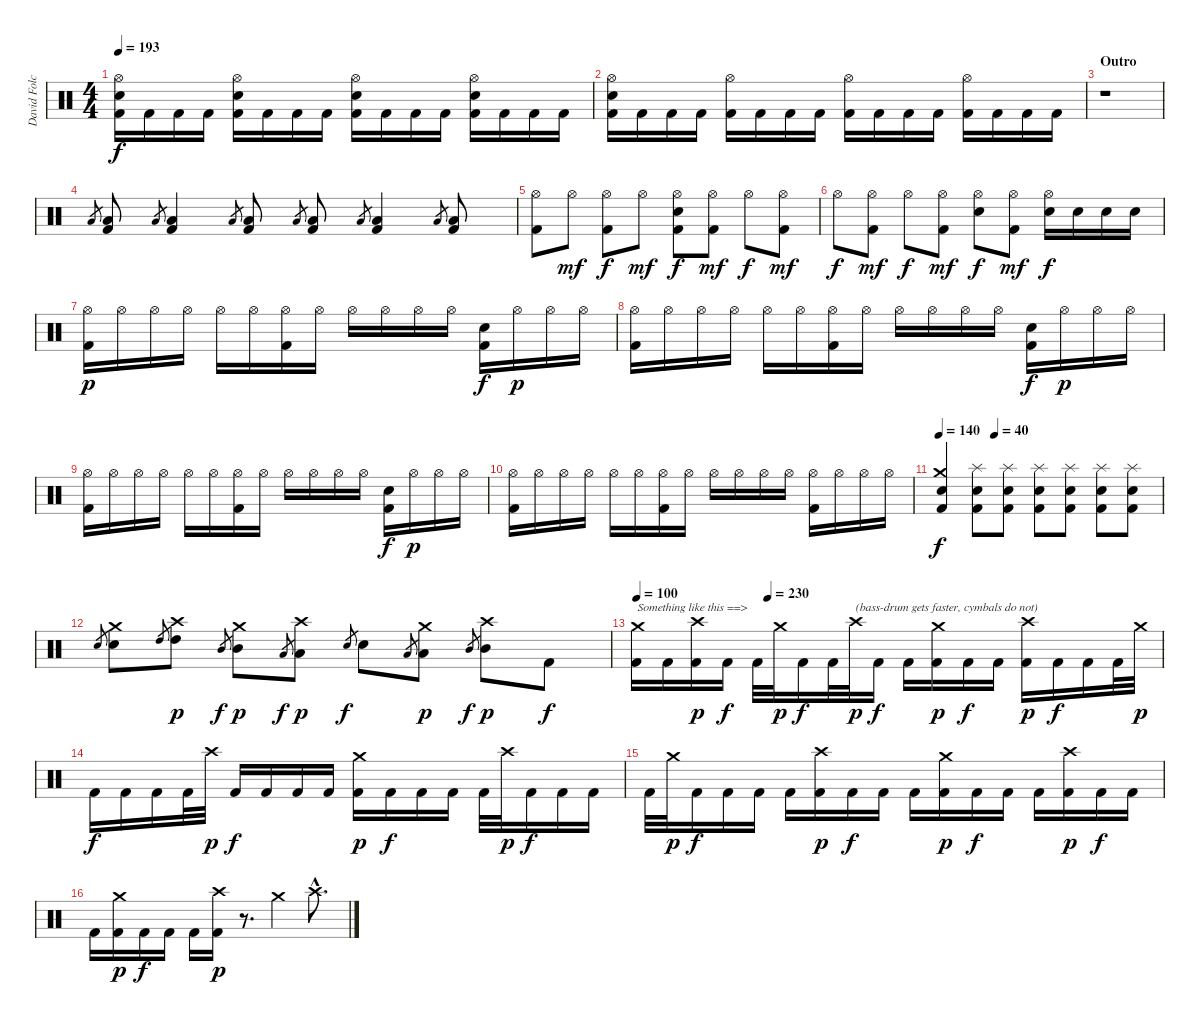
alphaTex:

\track ("David Folchitto" "David Folc") {instrument percussion}
\staff {score}
\articulation defaults
\ts (4 4)
\tempo 193
\clef neutral
\ks c
("Hi-Hat (open)" "Snare (hit) 2" "Kick (hit) 2").16{dy f} "Kick (hit) 2".16 "Kick (hit) 2".16 "Kick (hit) 2".16 ("Hi-Hat (open)" "Snare (hit) 2" "Kick (hit) 2").16 "Kick (hit) 2".16 "Kick (hit) 2".16 "Kick (hit) 2".16 ("Hi-Hat (open)" "Snare (hit) 2" "Kick (hit) 2").16 "Kick (hit) 2".16 "Kick (hit) 2".16 "Kick (hit) 2".16 ("Hi-Hat (open)" "Snare (hit) 2" "Kick (hit) 2").16 "Kick (hit) 2".16 "Kick (hit) 2".16 "Kick (hit) 2".16 |
("Hi-Hat (open)" "Snare (hit) 2" "Kick (hit) 2").16 "Kick (hit) 2".16 "Kick (hit) 2".16 "Kick (hit) 2".16 ("Hi-Hat (open)" "Kick (hit) 2").16 "Kick (hit) 2".16 "Kick (hit) 2".16 "Kick (hit) 2".16 ("Hi-Hat (open)" "Kick (hit) 2").16 "Kick (hit) 2".16 "Kick (hit) 2".16 "Kick (hit) 2".16 ("Hi-Hat (open)" "Kick (hit) 2").16 "Kick (hit) 2".16 "Kick (hit) 2".16 "Kick (hit) 2".16 |
\section ("" "Outro")
r.1 |
"Low Tom (hit)".8{gr} ("Low Tom (hit)" "Kick (hit) 2").8 "Low Tom (hit)".8{gr} ("Low Tom (hit)" "Kick (hit) 2").4 "Low Tom (hit)".8{gr} ("Low Tom (hit)" "Kick (hit) 2").8 "Low Tom (hit)".8{gr} ("Low Tom (hit)" "Kick (hit) 2").8 "Low Tom (hit)".8{gr} ("Low Tom (hit)" "Kick (hit) 2").4 "Low Tom (hit)".8{gr} ("Low Tom (hit)" "Kick (hit) 2").8 |
("Hi-Hat (open)" "Kick (hit) 2").8 "Hi-Hat (open)".8{dy mf} ("Hi-Hat (open)" "Kick (hit) 2").8{dy f} "Hi-Hat (open)".8{dy mf} ("Hi-Hat (open)" "Snare (hit) 2" "Kick (hit) 2").8{dy f} ("Hi-Hat (open)" "Kick (hit) 2").8{dy mf} "Hi-Hat (open)".8{dy f} ("Hi-Hat (open)" "Kick (hit) 2").8{dy mf} |
"Hi-Hat (open)".8{dy f} ("Hi-Hat (open)" "Kick (hit) 2").8{dy mf} "Hi-Hat (open)".8{dy f} ("Hi-Hat (open)" "Kick (hit) 2").8{dy mf} ("Hi-Hat (open)" "Snare (hit) 2").8{dy f} ("Hi-Hat (open)" "Kick (hit) 2").8{dy mf} ("Hi-Hat (open)" "Snare (hit) 2").16{dy f} "Snare (hit) 2".16 "Snare (hit) 2".16 "Snare (hit) 2".16 |
("Hi-Hat (open)" "Kick (hit) 2").16{dy p} "Hi-Hat (open)".16 "Hi-Hat (open)".16 "Hi-Hat (open)".16 "Hi-Hat (open)".16 "Hi-Hat (open)".16 ("Hi-Hat (open)" "Kick (hit) 2").16 "Hi-Hat (open)".16 "Hi-Hat (open)".16 "Hi-Hat (open)".16 "Hi-Hat (open)".16 "Hi-Hat (open)".16 ("Snare (hit) 2" "Kick (hit) 2").16{dy f} "Hi-Hat (open)".16{dy p} "Hi-Hat (open)".16 "Hi-Hat (open)".16 |
("Hi-Hat (open)" "Kick (hit) 2").16 "Hi-Hat (open)".16 "Hi-Hat (open)".16 "Hi-Hat (open)".16 "Hi-Hat (open)".16 "Hi-Hat (open)".16 ("Hi-Hat (open)" "Kick (hit) 2").16 "Hi-Hat (open)".16 "Hi-Hat (open)".16 "Hi-Hat (open)".16 "Hi-Hat (open)".16 "Hi-Hat (open)".16 ("Snare (hit) 2" "Kick (hit) 2").16{dy f} "Hi-Hat (open)".16{dy p} "Hi-Hat (open)".16 "Hi-Hat (open)".16 |
("Hi-Hat (open)" "Kick (hit) 2").16 "Hi-Hat (open)".16 "Hi-Hat (open)".16 "Hi-Hat (open)".16 "Hi-Hat (open)".16 "Hi-Hat (open)".16 ("Hi-Hat (open)" "Kick (hit) 2").16 "Hi-Hat (open)".16 "Hi-Hat (open)".16 "Hi-Hat (open)".16 "Hi-Hat (open)".16 "Hi-Hat (open)".16 ("Snare (hit) 2" "Kick (hit) 2").16{dy f} "Hi-Hat (open)".16{dy p} "Hi-Hat (open)".16 "Hi-Hat (open)".16 |
("Hi-Hat (open)" "Kick (hit) 2").16 "Hi-Hat (open)".16 "Hi-Hat (open)".16 "Hi-Hat (open)".16 "Hi-Hat (open)".16 "Hi-Hat (open)".16 ("Hi-Hat (open)" "Kick (hit) 2").16 "Hi-Hat (open)".16 "Hi-Hat (open)".16 "Hi-Hat (open)".16 "Hi-Hat (open)".16 "Hi-Hat (open)".16 ("Hi-Hat (open)" "Kick (hit) 2").16 "Hi-Hat (open)".16 "Hi-Hat (open)".16 "Hi-Hat (open)".16 |
\tempo 140
\tempo (40 0.25)
("Crash medium (hit)" "Electric Snare (hit)" "Kick (hit) 2").4{dy f} ("Splash (hit)" "Electric Snare (hit)" "Kick (hit) 2").8{volume 16} ("Splash (hit)" "Electric Snare (hit)" "Kick (hit) 2").8 ("Splash (hit)" "Electric Snare (hit)" "Kick (hit) 2").8 ("Splash (hit)" "Electric Snare (hit)" "Kick (hit) 2").8 ("Splash (hit)" "Electric Snare (hit)" "Kick (hit) 2").8 ("Splash (hit)" "Electric Snare (hit)" "Kick (hit) 2").8 |
"Snare (hit) 2".8{gr} ("Crash medium (hit)" "Snare (hit) 2").8 "High Tom (hit)".8{gr} ("Crash high (hit)" "High Tom (hit)").8{dy p} "Mid Tom (hit)".8{gr dy f} ("Crash medium (hit)" "Mid Tom (hit)").8{dy p} "Low Tom (hit)".8{gr dy f} ("Crash high (hit)" "Low Tom (hit)").8{dy p} "Snare (hit) 2".8{gr dy f} "Snare (hit) 2".8 "Low Tom (hit)".8{gr} ("Crash medium (hit)" "Low Tom (hit)").8{dy p} "Mid Tom (hit)".8{gr dy f} ("Crash high (hit)" "Mid Tom (hit)").8{dy p} "Kick (hit) 2".8{dy f} |
\tempo 100
\tempo (230 0.25)
("Crash medium (hit)" "Kick (hit) 2").16{txt "Something like this ==>" volume 11} "Kick (hit) 2".16 ("Crash high (hit)" "Kick (hit) 2").16{dy p} "Kick (hit) 2".16{dy f} "Kick (hit) 2".32 "Crash medium (hit)".32{dy p} "Kick (hit) 2".16{dy f} "Kick (hit) 2".32 "Crash high (hit)".32{txt "(bass-drum gets faster, cymbals do not)" dy p} "Kick (hit) 2".16{dy f} "Kick (hit) 2".16 ("Crash medium (hit)" "Kick (hit) 2").16{dy p} "Kick (hit) 2".16{dy f} "Kick (hit) 2".16 ("Crash high (hit)" "Kick (hit) 2").16{dy p} "Kick (hit) 2".16{dy f} "Kick (hit) 2".16 "Kick (hit) 2".32 "Crash medium (hit)".32{dy p} |
"Kick (hit) 2".16{dy f} "Kick (hit) 2".16 "Kick (hit) 2".16 "Kick (hit) 2".32 "Crash high (hit)".32{dy p} "Kick (hit) 2".16{dy f} "Kick (hit) 2".16 "Kick (hit) 2".16 "Kick (hit) 2".16 ("Crash medium (hit)" "Kick (hit) 2").16{dy p} "Kick (hit) 2".16{dy f} "Kick (hit) 2".16 "Kick (hit) 2".16 "Kick (hit) 2".32 "Crash high (hit)".32{dy p} "Kick (hit) 2".16{dy f} "Kick (hit) 2".16 "Kick (hit) 2".16 |
"Kick (hit) 2".32 "Crash medium (hit)".32{dy p} "Kick (hit) 2".16{dy f} "Kick (hit) 2".16 "Kick (hit) 2".16 "Kick (hit) 2".16 ("Crash high (hit)" "Kick (hit) 2").16{dy p} "Kick (hit) 2".16{dy f} "Kick (hit) 2".16 "Kick (hit) 2".16 ("Crash medium (hit)" "Kick (hit) 2").16{dy p} "Kick (hit) 2".16{dy f} "Kick (hit) 2".16 "Kick (hit) 2".16 ("Crash high (hit)" "Kick (hit) 2").16{dy p} "Kick (hit) 2".16{dy f} "Kick (hit) 2".16 |
"Kick (hit) 2".16 ("Crash medium (hit)" "Kick (hit) 2").16{dy p} "Kick (hit) 2".16{dy f} "Kick (hit) 2".16 "Kick (hit) 2".16 ("Crash high (hit)" "Kick (hit) 2").16{dy p} r.8{d} "Crash medium (hit)".4 "Crash high (hit)"{hac}.8{d}
